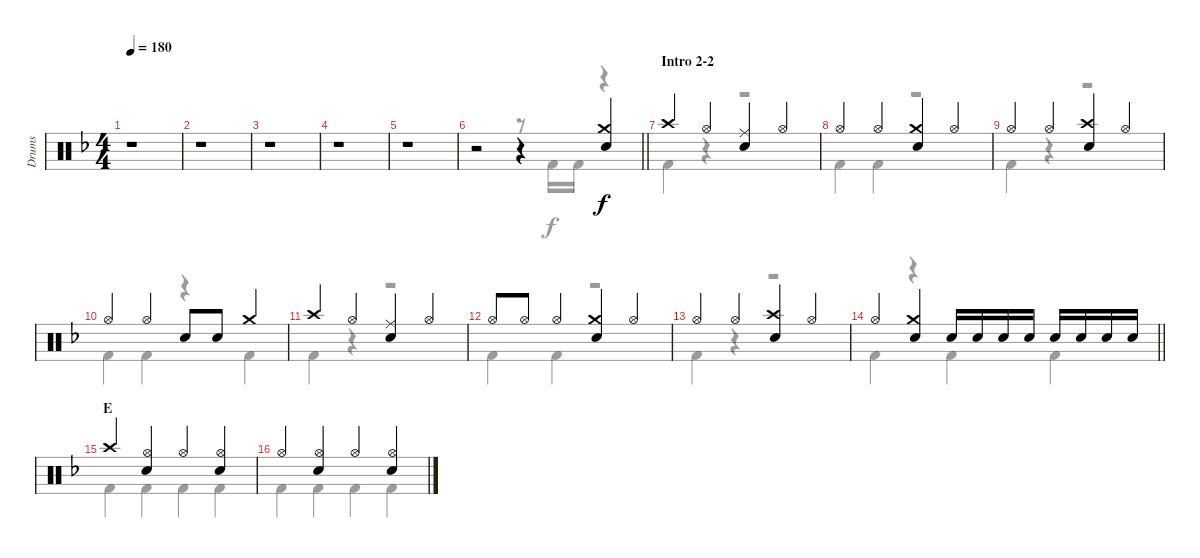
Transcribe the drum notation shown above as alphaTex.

\track ("Drums" "Drums") {instrument percussion}
\staff {score}
\articulation defaults
\voice
\ts (4 4)
\tempo 180
\clef neutral
\ks f
r.1{dy f} |
r.1 |
r.1 |
r.1 |
r.1 |
\barLineRight lightlight
r.2 r.4 ("Crash medium (hit)" "Snare (hit) 2").4 |
\section ("" "Intro 2-2")
"Crash high (hit)".4 "Hi-Hat (open)".4 ("Ride (middle)" "Snare (hit) 2").4 "Hi-Hat (open)".4 |
"Hi-Hat (open)".4 "Hi-Hat (open)".4 ("Crash medium (hit)" "Snare (hit) 2").4 "Hi-Hat (open)".4 |
"Hi-Hat (open)".4 "Hi-Hat (open)".4 ("Crash high (hit)" "Snare (hit) 2").4 "Hi-Hat (open)".4 |
"Hi-Hat (open)".4 "Hi-Hat (open)".4 "Snare (hit) 2".8 "Snare (hit) 2".8 "Crash medium (hit)".4 |
"Crash high (hit)".4 "Hi-Hat (open)".4 ("Ride (middle)" "Snare (hit) 2").4 "Hi-Hat (open)".4 |
"Hi-Hat (open)".8 "Hi-Hat (open)".8 "Hi-Hat (open)".4 ("Crash medium (hit)" "Snare (hit) 2").4 "Hi-Hat (open)".4 |
"Hi-Hat (open)".4 "Hi-Hat (open)".4 ("Crash high (hit)" "Snare (hit) 2").4 "Hi-Hat (open)".4 |
\barLineRight lightlight "Hi-Hat (open)".4
("Crash medium (hit)" "Snare (hit) 2").4 "Snare (hit) 2".16 "Snare (hit) 2".16 "Snare (hit) 2".16 "Snare (hit) 2".16 "Snare (hit) 2".16 "Snare (hit) 2".16 "Snare (hit) 2".16 "Snare (hit) 2".16 |
\section ("" "E")
"Crash high (hit)".4 ("Hi-Hat (open)" "Snare (hit) 2").4 "Hi-Hat (open)".4 ("Hi-Hat (open)" "Snare (hit) 2").4 |
"Hi-Hat (open)".4 ("Hi-Hat (open)" "Snare (hit) 2").4 "Hi-Hat (open)".4 ("Hi-Hat (open)" "Snare (hit) 2").4
\voice
\clef neutral
\ottava regular
\simile none
\ks f
r.1{dy f} |
r.1 |
r.1 |
r.1 |
r.1 |
\barLineRight lightlight
r.2 r.8 "Kick (hit) 2".16 "Kick (hit) 2".16 r.4 |
"Kick (hit) 2".4 r.4 r.2 |
"Kick (hit) 2".4 "Kick (hit) 2".4 r.2 |
"Kick (hit) 2".4 r.4 r.2 |
"Kick (hit) 2".4 "Kick (hit) 2".4 r.4 "Kick (hit) 2".4 |
"Kick (hit) 2".4 r.4 r.2 |
"Kick (hit) 2".4 "Kick (hit) 2".4 r.2 |
"Kick (hit) 2".4 r.4 r.2 |
\barLineRight lightlight "Kick (hit) 2".4
r.4 "Kick (hit) 2".4 "Kick (hit) 2".4 |
"Kick (hit) 2".4 "Kick (hit) 2".4 "Kick (hit) 2".4 "Kick (hit) 2".4 |
"Kick (hit) 2".4 "Kick (hit) 2".4 "Kick (hit) 2".4 "Kick (hit) 2".4
